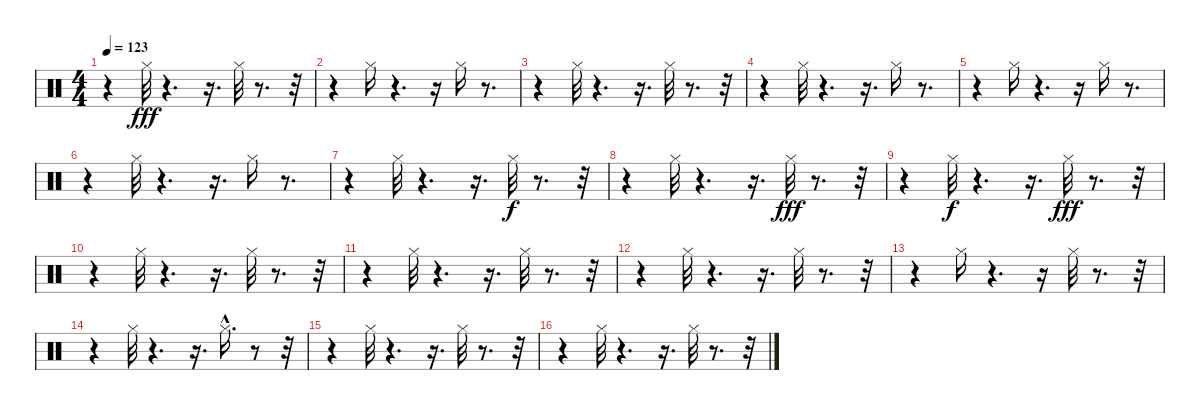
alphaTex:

\track "" {instrument percussion}
\staff {score}
\articulation defaults
\ts (4 4)
\tempo 123
\clef neutral
\ks c
r.4{dy fff} "Hi-Hat (closed)".32 r.4{d} r.16{d} "Hi-Hat (closed)".32 r.8{d} r.32 |
r.4 "Hi-Hat (closed)".16 r.4{d} r.16 "Hi-Hat (closed)".16 r.8{d} |
r.4 "Hi-Hat (closed)".32 r.4{d} r.16{d} "Hi-Hat (closed)".32 r.8{d} r.32 |
r.4 "Hi-Hat (closed)".32 r.4{d} r.16{d} "Hi-Hat (closed)".16 r.8{d} |
r.4 "Hi-Hat (closed)".16 r.4{d} r.16 "Hi-Hat (closed)".16 r.8{d} |
r.4 "Hi-Hat (closed)".32 r.4{d} r.16{d} "Hi-Hat (closed)".16 r.8{d} |
r.4 "Hi-Hat (closed)".32 r.4{d} r.16{d} "Hi-Hat (closed)".32{dy f} r.8{d} r.32 |
r.4 "Hi-Hat (closed)".32 r.4{d} r.16{d} "Hi-Hat (closed)".32{dy fff} r.8{d} r.32 |
r.4 "Hi-Hat (closed)".32{dy f} r.4{d} r.16{d} "Hi-Hat (closed)".32{dy fff} r.8{d} r.32 |
r.4 "Hi-Hat (closed)".32 r.4{d} r.16{d} "Hi-Hat (closed)".32 r.8{d} r.32 |
r.4 "Hi-Hat (closed)".32 r.4{d} r.16{d} "Hi-Hat (closed)".32 r.8{d} r.32 |
r.4 "Hi-Hat (closed)".32 r.4{d} r.16{d} "Hi-Hat (closed)".32 r.8{d} r.32 |
r.4 "Hi-Hat (closed)".16 r.4{d} r.16 "Hi-Hat (closed)".32 r.8{d} r.32 |
r.4 "Hi-Hat (closed)".32 r.4{d} r.16{d} "Hi-Hat (closed)"{hac}.16{d} r.8 r.32 |
r.4 "Hi-Hat (closed)".32 r.4{d} r.16{d} "Hi-Hat (closed)".32 r.8{d} r.32 |
r.4 "Hi-Hat (closed)".32 r.4{d} r.16{d} "Hi-Hat (closed)".32 r.8{d} r.32
